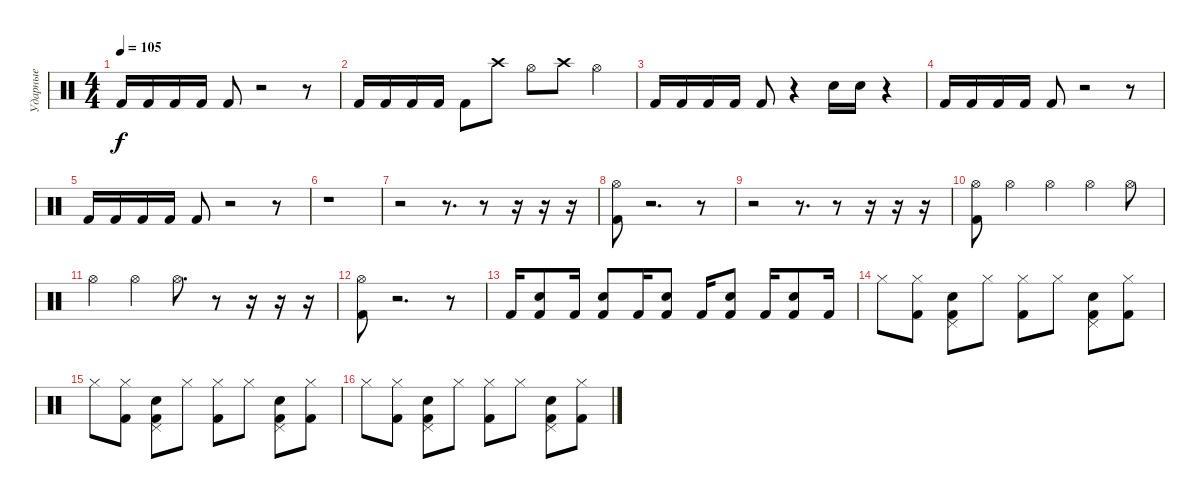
\track ("Ударные" "Ударные") {instrument percussion}
\staff {score}
\articulation defaults
\ts (4 4)
\tempo 105
\clef neutral
\ks c "Kick (hit) 2".16{dy f} "Kick (hit) 2".16 "Kick (hit) 2".16 "Kick (hit) 2".16 "Kick (hit) 2".8
r.2 r.8 |
"Kick (hit) 2".16 "Kick (hit) 2".16 "Kick (hit) 2".16 "Kick (hit) 2".16 "Kick (hit) 2".8 "Crash high (hit)".8 "Hi-Hat (open)".8 "Crash high (hit)".8 "Hi-Hat (open)".4 |
"Kick (hit) 2".16 "Kick (hit) 2".16 "Kick (hit) 2".16 "Kick (hit) 2".16 "Kick (hit) 2".8 r.4 "Electric Snare (hit)".16 "Electric Snare (hit)".16 r.4 |
"Kick (hit) 2".16 "Kick (hit) 2".16 "Kick (hit) 2".16 "Kick (hit) 2".16 "Kick (hit) 2".8 r.2 r.8 |
"Kick (hit) 2".16 "Kick (hit) 2".16 "Kick (hit) 2".16 "Kick (hit) 2".16 "Kick (hit) 2".8 r.2 r.8 |
r.1 |
r.2 r.8{d} r.8 r.16 r.16 r.16 |
("Hi-Hat (open)" "Kick (hit) 2").8 r.2{d} r.8 |
r.2 r.8{d} r.8 r.16 r.16 r.16 |
("Hi-Hat (open)" "Kick (hit) 2").8 "Hi-Hat (open)".4 "Hi-Hat (open)".4 "Hi-Hat (open)".4 "Hi-Hat (open)".8 |
"Hi-Hat (open)".4 "Hi-Hat (open)".4 "Hi-Hat (open)".8{d} r.8 r.16 r.16 r.16 |
("Hi-Hat (open)" "Kick (hit) 2").8 r.2{d} r.8 |
"Kick (hit) 2".16 ("Electric Snare (hit)" "Kick (hit) 2").8 "Kick (hit) 2".16 ("Electric Snare (hit)" "Kick (hit) 2").8 "Kick (hit) 2".16 ("Electric Snare (hit)" "Kick (hit) 2").8 "Kick (hit) 2".16 ("Electric Snare (hit)" "Kick (hit) 2").8 "Kick (hit) 2".16 ("Electric Snare (hit)" "Kick (hit) 2").8 "Kick (hit) 2".16 |
"Hi-Hat (closed)".8 ("Hi-Hat (closed)" "Kick (hit) 2").8 ("Pedal Hi-Hat (hit)" "Electric Snare (hit)" "Kick (hit) 2").8 "Hi-Hat (closed)".8 ("Hi-Hat (closed)" "Kick (hit) 2").8 "Hi-Hat (closed)".8 ("Pedal Hi-Hat (hit)" "Electric Snare (hit)" "Kick (hit) 2").8 ("Hi-Hat (closed)" "Kick (hit) 2").8 |
"Hi-Hat (closed)".8 ("Hi-Hat (closed)" "Kick (hit) 2").8 ("Pedal Hi-Hat (hit)" "Electric Snare (hit)" "Kick (hit) 2").8 "Hi-Hat (closed)".8 ("Hi-Hat (closed)" "Kick (hit) 2").8 "Hi-Hat (closed)".8 ("Pedal Hi-Hat (hit)" "Electric Snare (hit)" "Kick (hit) 2").8 ("Hi-Hat (closed)" "Kick (hit) 2").8 |
"Hi-Hat (closed)".8 ("Hi-Hat (closed)" "Kick (hit) 2").8 ("Pedal Hi-Hat (hit)" "Electric Snare (hit)" "Kick (hit) 2").8 "Hi-Hat (closed)".8 ("Hi-Hat (closed)" "Kick (hit) 2").8 "Hi-Hat (closed)".8 ("Pedal Hi-Hat (hit)" "Electric Snare (hit)" "Kick (hit) 2").8 ("Hi-Hat (closed)" "Kick (hit) 2").8
